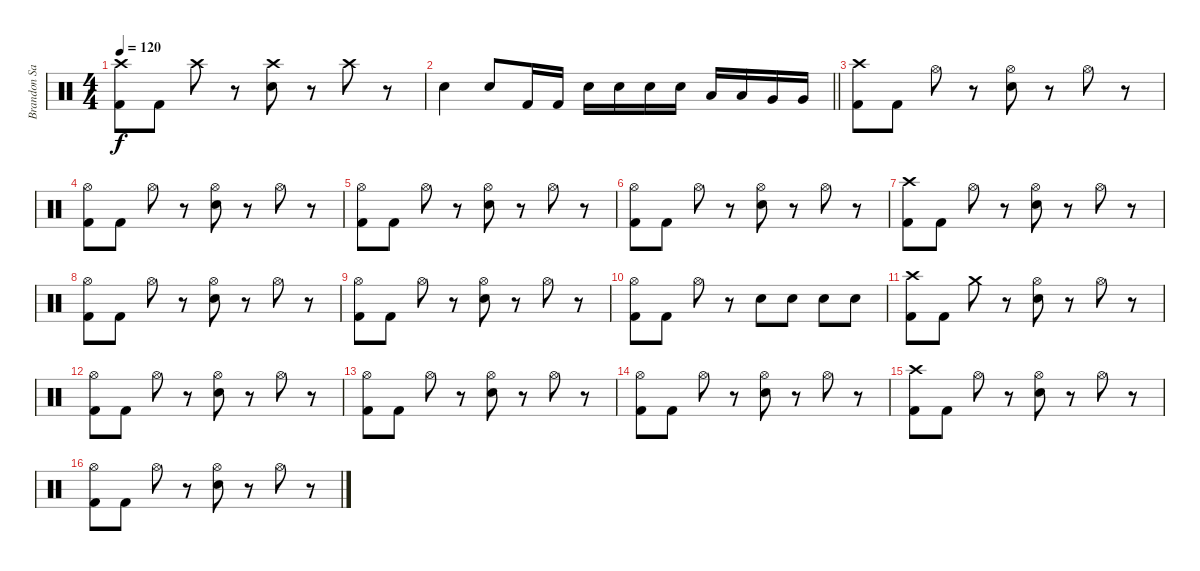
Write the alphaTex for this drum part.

\track ("Brandon Saller" "Brandon Sa") {instrument percussion}
\staff {score}
\articulation defaults
\ts (4 4)
\tempo 120
\clef neutral
\ks c
("Crash high (hit)" "Kick (hit) 2").8{dy f} "Kick (hit) 2".8 "Crash high (hit)".8 r.8 ("Crash high (hit)" "Electric Snare (hit)").8 r.8 "Crash high (hit)".8 r.8 |
\barLineRight lightlight "Electric Snare (hit)".4 "Electric Snare (hit)".8 "Kick (hit) 2".16 "Kick (hit) 2".16 "Electric Snare (hit)".16 "Electric Snare (hit)".16 "Electric Snare (hit)".16 "Electric Snare (hit)".16 "Low Tom (hit)".16 "Low Tom (hit)".16 "Very Low Tom (hit)".16 "Very Low Tom (hit)".16
|
("Crash high (hit)" "Kick (hit) 2").8 "Kick (hit) 2".8 "Hi-Hat (open)".8 r.8 ("Hi-Hat (open)" "Electric Snare (hit)").8 r.8 "Hi-Hat (open)".8 r.8 |
("Hi-Hat (open)" "Kick (hit) 2").8 "Kick (hit) 2".8 "Hi-Hat (open)".8 r.8 ("Hi-Hat (open)" "Electric Snare (hit)").8 r.8 "Hi-Hat (open)".8 r.8 |
("Hi-Hat (open)" "Kick (hit) 2").8 "Kick (hit) 2".8 "Hi-Hat (open)".8 r.8 ("Hi-Hat (open)" "Electric Snare (hit)").8 r.8 "Hi-Hat (open)".8 r.8 |
("Hi-Hat (open)" "Kick (hit) 2").8 "Kick (hit) 2".8 "Hi-Hat (open)".8 r.8 ("Hi-Hat (open)" "Electric Snare (hit)").8 r.8 "Hi-Hat (open)".8 r.8 |
("Crash high (hit)" "Kick (hit) 2").8 "Kick (hit) 2".8 "Hi-Hat (open)".8 r.8 ("Hi-Hat (open)" "Electric Snare (hit)").8 r.8 "Hi-Hat (open)".8 r.8 |
("Hi-Hat (open)" "Kick (hit) 2").8 "Kick (hit) 2".8 "Hi-Hat (open)".8 r.8 ("Hi-Hat (open)" "Electric Snare (hit)").8 r.8 "Hi-Hat (open)".8 r.8 |
("Hi-Hat (open)" "Kick (hit) 2").8 "Kick (hit) 2".8 "Hi-Hat (open)".8 r.8 ("Hi-Hat (open)" "Electric Snare (hit)").8 r.8 "Hi-Hat (open)".8 r.8 |
("Hi-Hat (open)" "Kick (hit) 2").8 "Kick (hit) 2".8 "Hi-Hat (open)".8 r.8 "Electric Snare (hit)".8 "Electric Snare (hit)".8 "Electric Snare (hit)".8 "Electric Snare (hit)".8 |
("Crash high (hit)" "Kick (hit) 2").8 "Kick (hit) 2".8 "Crash medium (hit)".8 r.8 ("Hi-Hat (open)" "Electric Snare (hit)").8 r.8 "Hi-Hat (open)".8 r.8 |
("Hi-Hat (open)" "Kick (hit) 2").8 "Kick (hit) 2".8 "Hi-Hat (open)".8 r.8 ("Hi-Hat (open)" "Electric Snare (hit)").8 r.8 "Hi-Hat (open)".8 r.8 |
("Hi-Hat (open)" "Kick (hit) 2").8 "Kick (hit) 2".8 "Hi-Hat (open)".8 r.8 ("Hi-Hat (open)" "Electric Snare (hit)").8 r.8 "Hi-Hat (open)".8 r.8 |
("Hi-Hat (open)" "Kick (hit) 2").8 "Kick (hit) 2".8 "Hi-Hat (open)".8 r.8 ("Hi-Hat (open)" "Electric Snare (hit)").8 r.8 "Hi-Hat (open)".8 r.8 |
("Crash high (hit)" "Kick (hit) 2").8 "Kick (hit) 2".8 "Hi-Hat (open)".8 r.8 ("Hi-Hat (open)" "Electric Snare (hit)").8 r.8 "Hi-Hat (open)".8 r.8 |
("Hi-Hat (open)" "Kick (hit) 2").8 "Kick (hit) 2".8 "Hi-Hat (open)".8 r.8 ("Hi-Hat (open)" "Electric Snare (hit)").8 r.8 "Hi-Hat (open)".8 r.8
